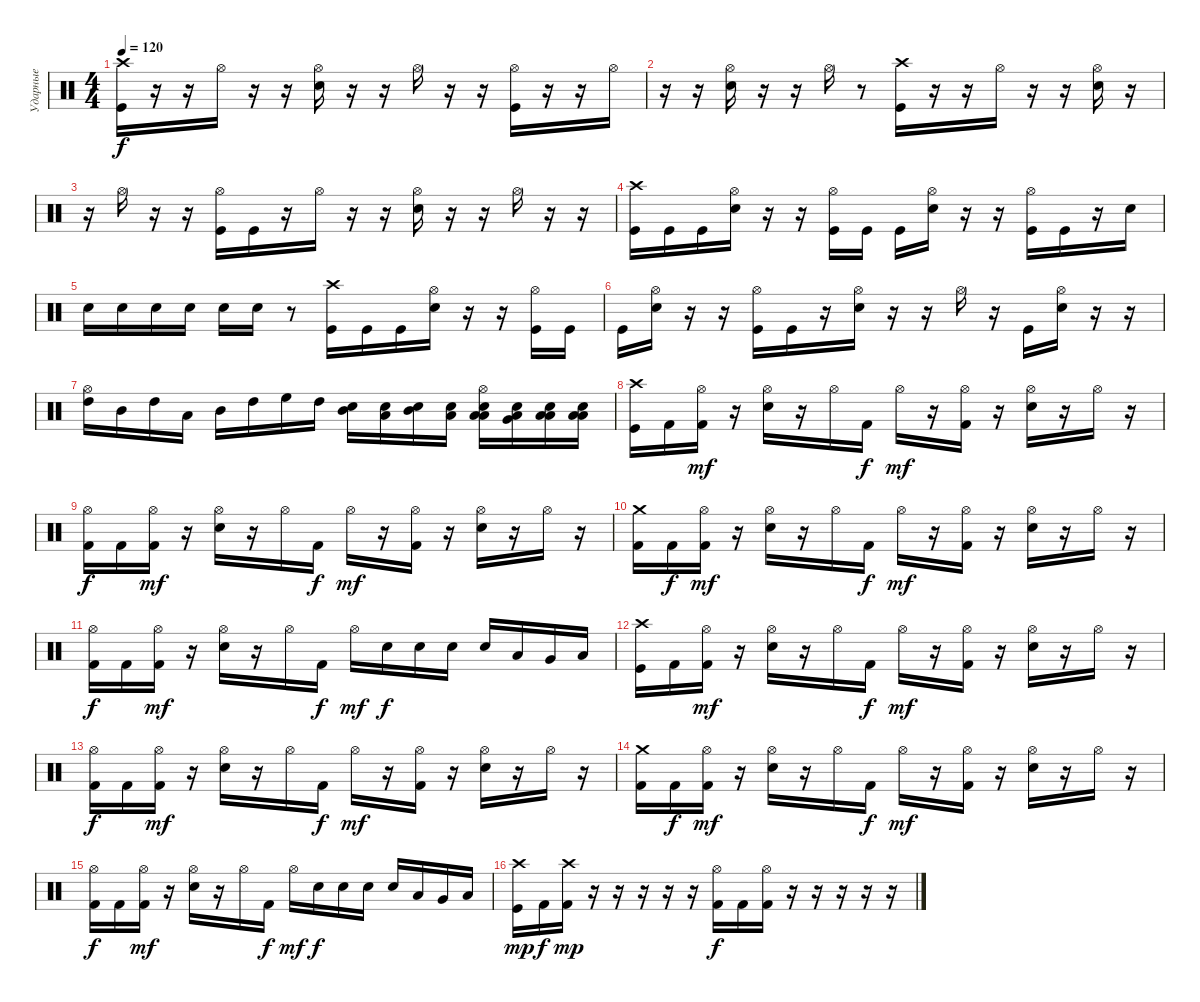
\track ("Ударные" "Ударные") {instrument percussion}
\staff {score}
\articulation defaults
\ts (4 4)
\tempo 120
\clef neutral
\ks c
("Kick (hit)" "Crash high (hit)").16{dy f} r.16 r.16 "Hi-Hat (open)".16 r.16 r.16 ("Hi-Hat (open)" "Snare (hit) 2").16 r.16 r.16 "Hi-Hat (open)".16 r.16 r.16 ("Hi-Hat (open)" "Kick (hit)").16 r.16 r.16 "Hi-Hat (open)".16 |
r.16 r.16 ("Snare (hit) 2" "Hi-Hat (open)").16 r.16 r.16 "Hi-Hat (open)".16 r.8 ("Kick (hit)" "Crash high (hit)").16 r.16 r.16 "Hi-Hat (open)".16 r.16 r.16 ("Snare (hit) 2" "Hi-Hat (open)").16 r.16 |
r.16 "Hi-Hat (open)".16 r.16 r.16 ("Kick (hit)" "Hi-Hat (open)").16 "Kick (hit)".16 r.16 "Hi-Hat (open)".16 r.16 r.16 ("Snare (hit) 2" "Hi-Hat (open)").16 r.16 r.16 "Hi-Hat (open)".16 r.16 r.16 |
("Kick (hit)" "Crash high (hit)").16 "Kick (hit)".16 "Kick (hit)".16 ("Snare (hit) 2" "Hi-Hat (open)").16 r.16 r.16 ("Kick (hit)" "Hi-Hat (open)").16 "Kick (hit)".16 "Kick (hit)".16 ("Snare (hit) 2" "Hi-Hat (open)").16 r.16 r.16 ("Kick (hit)" "Hi-Hat (open)").16 "Kick (hit)".16 r.16 "Snare (hit) 2".16 |
"Snare (hit) 2".16 "Snare (hit) 2".16 "Snare (hit) 2".16 "Snare (hit) 2".16 "Snare (hit) 2".16 "Snare (hit) 2".16 r.8 ("Kick (hit)" "Crash high (hit)").16 "Kick (hit)".16 "Kick (hit)".16 ("Snare (hit) 2" "Hi-Hat (open)").16 r.16 r.16 ("Kick (hit)" "Hi-Hat (open)").16 "Kick (hit)".16 |
"Kick (hit)".16 ("Snare (hit) 2" "Hi-Hat (open)").16 r.16 r.16 ("Kick (hit)" "Hi-Hat (open)").16 "Kick (hit)".16 r.16 ("Snare (hit) 2" "Hi-Hat (open)").16 r.16 r.16 "Hi-Hat (open)".16 r.16 "Kick (hit)".16 ("Snare (hit) 2" "Hi-Hat (open)").16 r.16 r.16 |
("High Tom (hit)" "Hi-Hat (open)").16 "Mid Tom (hit)".16 "High Tom (hit)".16 "Low Tom (hit)".16 "Mid Tom (hit)".16 "High Tom (hit)".16 "High Floor Tom (hit)".16 "High Tom (hit)".16 ("Mid Tom (hit)" "Snare (hit) 2").16 ("Low Tom (hit)" "Snare (hit) 2").16 ("Mid Tom (hit)" "Snare (hit) 2").16 ("Low Tom (hit)" "Snare (hit) 2").16 ("Low Floor Tom (hit)" "Snare (hit) 2" "Low Floor Tom (hit)" "Hi-Hat (open)").16 ("Very Low Tom (hit)" "Snare (hit) 2" "Low Floor Tom (hit)").16 ("Low Tom (hit)" "Snare (hit) 2" "Low Floor Tom (hit)").16 ("Low Tom (hit)" "Snare (hit) 2" "Low Floor Tom (hit)").16 |
("Kick (hit)" "Crash high (hit)").16 "Kick (hit) 2".16 ("Hi-Hat (open)" "Kick (hit) 2").16{dy mf} r.16 ("Hi-Hat (open)" "Snare (hit) 2").16 r.16 "Hi-Hat (open)".16 "Kick (hit) 2".16{dy f} "Hi-Hat (open)".16{dy mf} r.16 ("Hi-Hat (open)" "Kick (hit) 2").16 r.16 ("Hi-Hat (open)" "Snare (hit) 2").16 r.16 "Hi-Hat (open)".16 r.16 |
("Hi-Hat (open)" "Kick (hit) 2").16{dy f} "Kick (hit) 2".16 ("Hi-Hat (open)" "Kick (hit) 2").16{dy mf} r.16 ("Hi-Hat (open)" "Snare (hit) 2").16 r.16 "Hi-Hat (open)".16 "Kick (hit) 2".16{dy f} "Hi-Hat (open)".16{dy mf} r.16 ("Hi-Hat (open)" "Kick (hit) 2").16 r.16 ("Hi-Hat (open)" "Snare (hit) 2").16 r.16 "Hi-Hat (open)".16 r.16 |
("Crash medium (hit)" "Kick (hit) 2").16 "Kick (hit) 2".16{dy f} ("Hi-Hat (open)" "Kick (hit) 2").16{dy mf} r.16 ("Hi-Hat (open)" "Snare (hit) 2").16 r.16 "Hi-Hat (open)".16 "Kick (hit) 2".16{dy f} "Hi-Hat (open)".16{dy mf} r.16 ("Hi-Hat (open)" "Kick (hit) 2").16 r.16 ("Hi-Hat (open)" "Snare (hit) 2").16 r.16 "Hi-Hat (open)".16 r.16 |
("Hi-Hat (open)" "Kick (hit) 2").16{dy f} "Kick (hit) 2".16 ("Hi-Hat (open)" "Kick (hit) 2").16{dy mf} r.16 ("Hi-Hat (open)" "Snare (hit) 2").16 r.16 "Hi-Hat (open)".16 "Kick (hit) 2".16{dy f} "Hi-Hat (open)".16{dy mf} "Snare (hit) 2".16{dy f} "Snare (hit) 2".16 "Snare (hit) 2".16 "Snare (hit) 2".16 "Low Tom (hit)".16 "Very Low Tom (hit)".16 "Low Floor Tom (hit)".16 |
("Kick (hit)" "Crash high (hit)").16 "Kick (hit) 2".16 ("Hi-Hat (open)" "Kick (hit) 2").16{dy mf} r.16 ("Hi-Hat (open)" "Snare (hit) 2").16 r.16 "Hi-Hat (open)".16 "Kick (hit) 2".16{dy f} "Hi-Hat (open)".16{dy mf} r.16 ("Hi-Hat (open)" "Kick (hit) 2").16 r.16 ("Hi-Hat (open)" "Snare (hit) 2").16 r.16 "Hi-Hat (open)".16 r.16 |
("Hi-Hat (open)" "Kick (hit) 2").16{dy f} "Kick (hit) 2".16 ("Hi-Hat (open)" "Kick (hit) 2").16{dy mf} r.16 ("Hi-Hat (open)" "Snare (hit) 2").16 r.16 "Hi-Hat (open)".16 "Kick (hit) 2".16{dy f} "Hi-Hat (open)".16{dy mf} r.16 ("Hi-Hat (open)" "Kick (hit) 2").16 r.16 ("Hi-Hat (open)" "Snare (hit) 2").16 r.16 "Hi-Hat (open)".16 r.16 |
("Crash medium (hit)" "Kick (hit) 2").16 "Kick (hit) 2".16{dy f} ("Hi-Hat (open)" "Kick (hit) 2").16{dy mf} r.16 ("Hi-Hat (open)" "Snare (hit) 2").16 r.16 "Hi-Hat (open)".16 "Kick (hit) 2".16{dy f} "Hi-Hat (open)".16{dy mf} r.16 ("Hi-Hat (open)" "Kick (hit) 2").16 r.16 ("Hi-Hat (open)" "Snare (hit) 2").16 r.16 "Hi-Hat (open)".16 r.16 |
("Hi-Hat (open)" "Kick (hit) 2").16{dy f} "Kick (hit) 2".16 ("Hi-Hat (open)" "Kick (hit) 2").16{dy mf} r.16 ("Hi-Hat (open)" "Snare (hit) 2").16 r.16 "Hi-Hat (open)".16 "Kick (hit) 2".16{dy f} "Hi-Hat (open)".16{dy mf} "Snare (hit) 2".16{dy f} "Snare (hit) 2".16 "Snare (hit) 2".16 "Snare (hit) 2".16 "Low Tom (hit)".16 "Very Low Tom (hit)".16 "Low Floor Tom (hit)".16 |
("Crash high (hit)" "Kick (hit)").16{dy mp} "Kick (hit) 2".16{dy f} ("Crash high (hit)" "Kick (hit) 2").16{dy mp} r.16 r.16 r.16 r.16 r.16 ("Hi-Hat (open)" "Kick (hit) 2").16{dy f} "Kick (hit) 2".16 ("Hi-Hat (open)" "Kick (hit) 2").16 r.16 r.16 r.16 r.16 r.16
